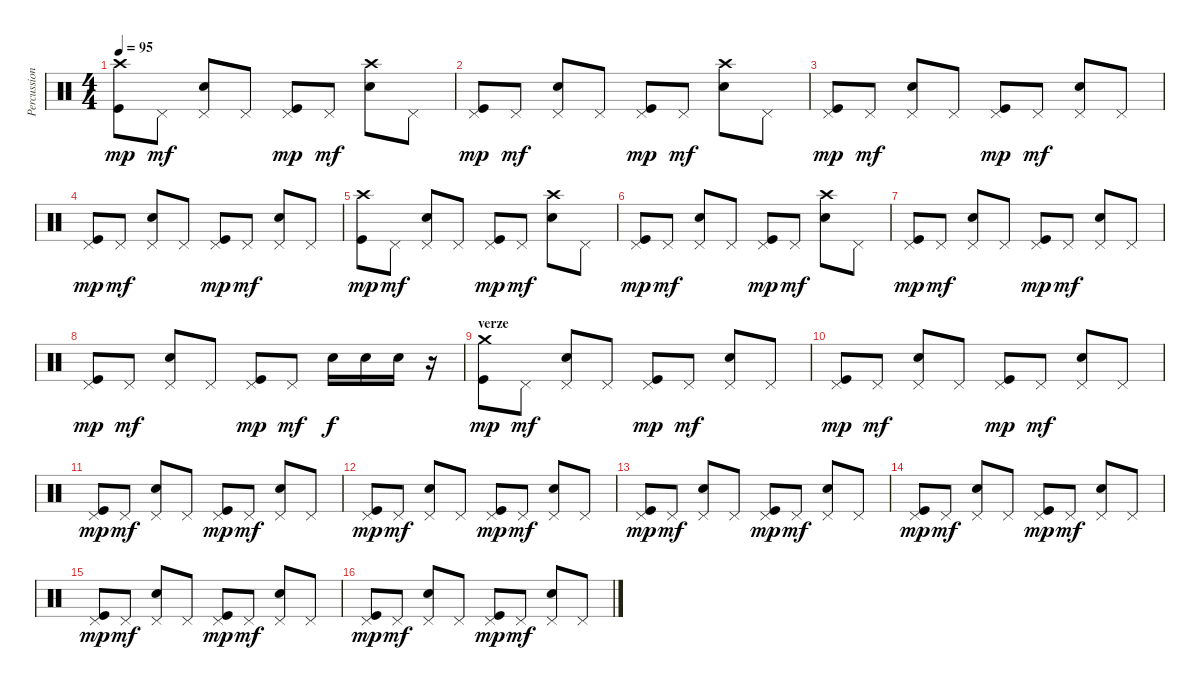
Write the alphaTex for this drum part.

\track ("Percussion" "Percussion") {instrument percussion}
\staff {score}
\articulation defaults
\ts (4 4)
\tempo 95
\clef neutral
\ks c
("Crash high (hit)" "Kick (hit)").8{dy mp} "Pedal Hi-Hat (hit)".8{dy mf} ("Pedal Hi-Hat (hit)" "Electric Snare (hit)").8 "Pedal Hi-Hat (hit)".8 ("Pedal Hi-Hat (hit)" "Kick (hit)").8{dy mp} "Pedal Hi-Hat (hit)".8{dy mf} ("Crash high (hit)" "Electric Snare (hit)").8 "Pedal Hi-Hat (hit)".8 |
("Pedal Hi-Hat (hit)" "Kick (hit)").8{dy mp} "Pedal Hi-Hat (hit)".8{dy mf} ("Pedal Hi-Hat (hit)" "Electric Snare (hit)").8 "Pedal Hi-Hat (hit)".8 ("Pedal Hi-Hat (hit)" "Kick (hit)").8{dy mp} "Pedal Hi-Hat (hit)".8{dy mf} ("Crash high (hit)" "Electric Snare (hit)").8 "Pedal Hi-Hat (hit)".8 |
("Pedal Hi-Hat (hit)" "Kick (hit)").8{dy mp} "Pedal Hi-Hat (hit)".8{dy mf} ("Pedal Hi-Hat (hit)" "Electric Snare (hit)").8 "Pedal Hi-Hat (hit)".8 ("Pedal Hi-Hat (hit)" "Kick (hit)").8{dy mp} "Pedal Hi-Hat (hit)".8{dy mf} ("Pedal Hi-Hat (hit)" "Electric Snare (hit)").8 "Pedal Hi-Hat (hit)".8 |
("Pedal Hi-Hat (hit)" "Kick (hit)").8{dy mp} "Pedal Hi-Hat (hit)".8{dy mf} ("Pedal Hi-Hat (hit)" "Electric Snare (hit)").8 "Pedal Hi-Hat (hit)".8 ("Pedal Hi-Hat (hit)" "Kick (hit)").8{dy mp} "Pedal Hi-Hat (hit)".8{dy mf} ("Pedal Hi-Hat (hit)" "Electric Snare (hit)").8 "Pedal Hi-Hat (hit)".8 |
("Crash high (hit)" "Kick (hit)").8{dy mp} "Pedal Hi-Hat (hit)".8{dy mf} ("Pedal Hi-Hat (hit)" "Electric Snare (hit)").8 "Pedal Hi-Hat (hit)".8 ("Pedal Hi-Hat (hit)" "Kick (hit)").8{dy mp} "Pedal Hi-Hat (hit)".8{dy mf} ("Crash high (hit)" "Electric Snare (hit)").8 "Pedal Hi-Hat (hit)".8 |
("Pedal Hi-Hat (hit)" "Kick (hit)").8{dy mp} "Pedal Hi-Hat (hit)".8{dy mf} ("Pedal Hi-Hat (hit)" "Electric Snare (hit)").8 "Pedal Hi-Hat (hit)".8 ("Pedal Hi-Hat (hit)" "Kick (hit)").8{dy mp} "Pedal Hi-Hat (hit)".8{dy mf} ("Crash high (hit)" "Electric Snare (hit)").8 "Pedal Hi-Hat (hit)".8 |
("Pedal Hi-Hat (hit)" "Kick (hit)").8{dy mp} "Pedal Hi-Hat (hit)".8{dy mf} ("Pedal Hi-Hat (hit)" "Electric Snare (hit)").8 "Pedal Hi-Hat (hit)".8 ("Pedal Hi-Hat (hit)" "Kick (hit)").8{dy mp} "Pedal Hi-Hat (hit)".8{dy mf} ("Pedal Hi-Hat (hit)" "Electric Snare (hit)").8 "Pedal Hi-Hat (hit)".8 |
("Pedal Hi-Hat (hit)" "Kick (hit)").8{dy mp} "Pedal Hi-Hat (hit)".8{dy mf} ("Pedal Hi-Hat (hit)" "Electric Snare (hit)").8 "Pedal Hi-Hat (hit)".8 ("Pedal Hi-Hat (hit)" "Kick (hit)").8{dy mp} "Pedal Hi-Hat (hit)".8{dy mf} "Electric Snare (hit)".16{dy f} "Electric Snare (hit)".16 "Electric Snare (hit)".16 r.16 |
\section ("" "verze")
("Crash medium (hit)" "Kick (hit)").8{dy mp} "Pedal Hi-Hat (hit)".8{dy mf} ("Pedal Hi-Hat (hit)" "Electric Snare (hit)").8 "Pedal Hi-Hat (hit)".8 ("Pedal Hi-Hat (hit)" "Kick (hit)").8{dy mp} "Pedal Hi-Hat (hit)".8{dy mf} ("Pedal Hi-Hat (hit)" "Electric Snare (hit)").8 "Pedal Hi-Hat (hit)".8 |
("Pedal Hi-Hat (hit)" "Kick (hit)").8{dy mp} "Pedal Hi-Hat (hit)".8{dy mf} ("Pedal Hi-Hat (hit)" "Electric Snare (hit)").8 "Pedal Hi-Hat (hit)".8 ("Pedal Hi-Hat (hit)" "Kick (hit)").8{dy mp} "Pedal Hi-Hat (hit)".8{dy mf} ("Pedal Hi-Hat (hit)" "Electric Snare (hit)").8 "Pedal Hi-Hat (hit)".8 |
("Pedal Hi-Hat (hit)" "Kick (hit)").8{dy mp} "Pedal Hi-Hat (hit)".8{dy mf} ("Pedal Hi-Hat (hit)" "Electric Snare (hit)").8 "Pedal Hi-Hat (hit)".8 ("Pedal Hi-Hat (hit)" "Kick (hit)").8{dy mp} "Pedal Hi-Hat (hit)".8{dy mf} ("Pedal Hi-Hat (hit)" "Electric Snare (hit)").8 "Pedal Hi-Hat (hit)".8 |
("Pedal Hi-Hat (hit)" "Kick (hit)").8{dy mp} "Pedal Hi-Hat (hit)".8{dy mf} ("Pedal Hi-Hat (hit)" "Electric Snare (hit)").8 "Pedal Hi-Hat (hit)".8 ("Pedal Hi-Hat (hit)" "Kick (hit)").8{dy mp} "Pedal Hi-Hat (hit)".8{dy mf} ("Pedal Hi-Hat (hit)" "Electric Snare (hit)").8 "Pedal Hi-Hat (hit)".8 |
("Pedal Hi-Hat (hit)" "Kick (hit)").8{dy mp} "Pedal Hi-Hat (hit)".8{dy mf} ("Pedal Hi-Hat (hit)" "Electric Snare (hit)").8 "Pedal Hi-Hat (hit)".8 ("Pedal Hi-Hat (hit)" "Kick (hit)").8{dy mp} "Pedal Hi-Hat (hit)".8{dy mf} ("Pedal Hi-Hat (hit)" "Electric Snare (hit)").8 "Pedal Hi-Hat (hit)".8 |
("Pedal Hi-Hat (hit)" "Kick (hit)").8{dy mp} "Pedal Hi-Hat (hit)".8{dy mf} ("Pedal Hi-Hat (hit)" "Electric Snare (hit)").8 "Pedal Hi-Hat (hit)".8 ("Pedal Hi-Hat (hit)" "Kick (hit)").8{dy mp} "Pedal Hi-Hat (hit)".8{dy mf} ("Pedal Hi-Hat (hit)" "Electric Snare (hit)").8 "Pedal Hi-Hat (hit)".8 |
("Pedal Hi-Hat (hit)" "Kick (hit)").8{dy mp} "Pedal Hi-Hat (hit)".8{dy mf} ("Pedal Hi-Hat (hit)" "Electric Snare (hit)").8 "Pedal Hi-Hat (hit)".8 ("Pedal Hi-Hat (hit)" "Kick (hit)").8{dy mp} "Pedal Hi-Hat (hit)".8{dy mf} ("Pedal Hi-Hat (hit)" "Electric Snare (hit)").8 "Pedal Hi-Hat (hit)".8 |
("Pedal Hi-Hat (hit)" "Kick (hit)").8{dy mp} "Pedal Hi-Hat (hit)".8{dy mf} ("Pedal Hi-Hat (hit)" "Electric Snare (hit)").8 "Pedal Hi-Hat (hit)".8 ("Pedal Hi-Hat (hit)" "Kick (hit)").8{dy mp} "Pedal Hi-Hat (hit)".8{dy mf} ("Pedal Hi-Hat (hit)" "Electric Snare (hit)").8 "Pedal Hi-Hat (hit)".8
